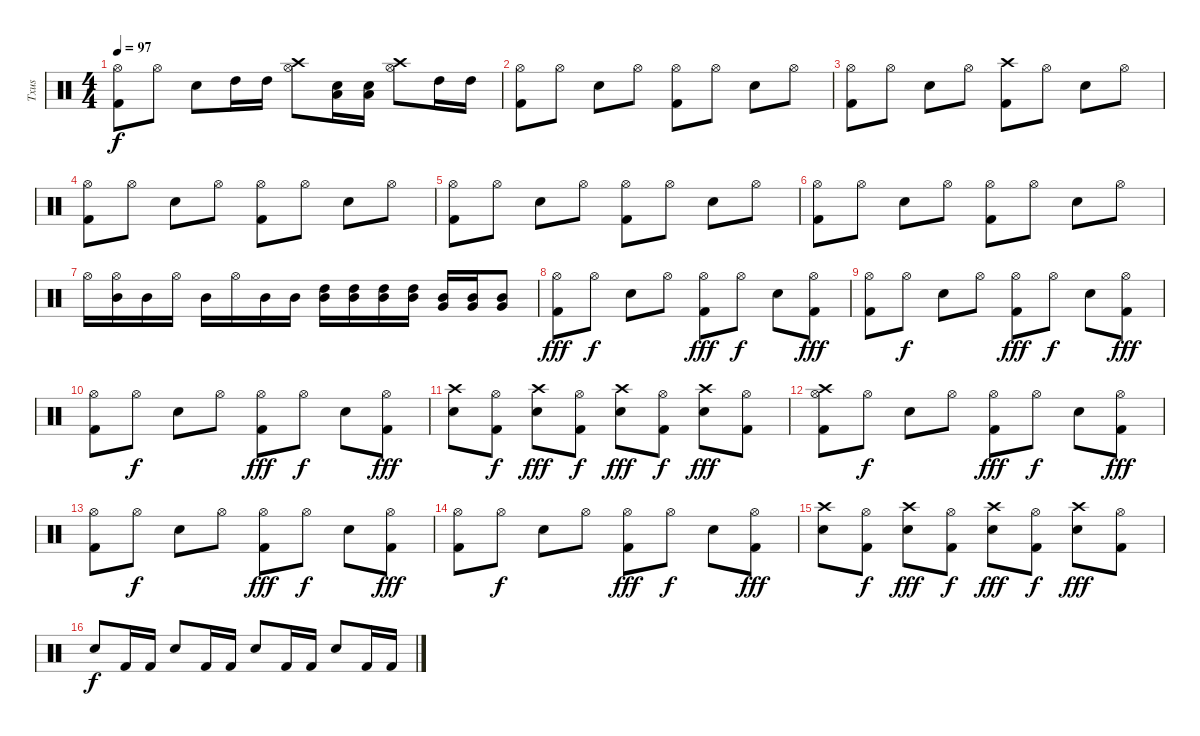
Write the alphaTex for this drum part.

\track ("Txus" "Txus") {instrument percussion}
\staff {score}
\articulation defaults
\ts (4 4)
\tempo 97
\clef neutral
\ks c
("Hi-Hat (open)" "Kick (hit) 2").8{dy f} "Hi-Hat (open)".8 "Snare (hit) 2".8 "High Tom (hit)".16 "High Tom (hit)".16 ("Crash high (hit)" "Hi-Hat (open)").8 ("Low Tom (hit)" "Snare (hit) 2").16 ("Low Tom (hit)" "Snare (hit) 2").16 ("Crash high (hit)" "Hi-Hat (open)").8 "High Tom (hit)".16 "High Tom (hit)".16 |
("Hi-Hat (open)" "Kick (hit) 2").8 "Hi-Hat (open)".8 "Snare (hit) 2".8 "Hi-Hat (open)".8 ("Hi-Hat (open)" "Kick (hit) 2").8 "Hi-Hat (open)".8 "Snare (hit) 2".8 "Hi-Hat (open)".8 |
("Hi-Hat (open)" "Kick (hit) 2").8 "Hi-Hat (open)".8 "Snare (hit) 2".8 "Hi-Hat (open)".8 ("Crash high (hit)" "Kick (hit) 2").8 "Hi-Hat (open)".8 "Snare (hit) 2".8 "Hi-Hat (open)".8 |
("Hi-Hat (open)" "Kick (hit) 2").8 "Hi-Hat (open)".8 "Snare (hit) 2".8 "Hi-Hat (open)".8 ("Hi-Hat (open)" "Kick (hit) 2").8 "Hi-Hat (open)".8 "Snare (hit) 2".8 "Hi-Hat (open)".8 |
("Hi-Hat (open)" "Kick (hit) 2").8 "Hi-Hat (open)".8 "Snare (hit) 2".8 "Hi-Hat (open)".8 ("Hi-Hat (open)" "Kick (hit) 2").8 "Hi-Hat (open)".8 "Snare (hit) 2".8 "Hi-Hat (open)".8 |
("Hi-Hat (open)" "Kick (hit) 2").8 "Hi-Hat (open)".8 "Snare (hit) 2".8 "Hi-Hat (open)".8 ("Hi-Hat (open)" "Kick (hit) 2").8 "Hi-Hat (open)".8 "Snare (hit) 2".8 "Hi-Hat (open)".8 |
"Hi-Hat (open)".16 ("Hi-Hat (open)" "Mid Tom (hit)").16 "Mid Tom (hit)".16 "Hi-Hat (open)".16 "Mid Tom (hit)".16 "Hi-Hat (open)".16 "Mid Tom (hit)".16 "Mid Tom (hit)".16 ("High Tom (hit)" "Mid Tom (hit)").16 ("High Tom (hit)" "Mid Tom (hit)").16 ("High Tom (hit)" "Mid Tom (hit)").16 ("High Tom (hit)" "Mid Tom (hit)").16 ("Very Low Tom (hit)" "Mid Tom (hit)").16 ("Very Low Tom (hit)" "Mid Tom (hit)").16 ("Very Low Tom (hit)" "Mid Tom (hit)").8 |
("Hi-Hat (open)" "Kick (hit) 2").8{dy fff} "Hi-Hat (open)".8{dy f} "Snare (hit) 2".8 "Hi-Hat (open)".8 ("Hi-Hat (open)" "Kick (hit) 2").8{dy fff} "Hi-Hat (open)".8{dy f} "Snare (hit) 2".8 ("Hi-Hat (open)" "Kick (hit) 2").8{dy fff} |
("Hi-Hat (open)" "Kick (hit) 2").8 "Hi-Hat (open)".8{dy f} "Snare (hit) 2".8 "Hi-Hat (open)".8 ("Hi-Hat (open)" "Kick (hit) 2").8{dy fff} "Hi-Hat (open)".8{dy f} "Snare (hit) 2".8 ("Hi-Hat (open)" "Kick (hit) 2").8{dy fff} |
("Hi-Hat (open)" "Kick (hit) 2").8 "Hi-Hat (open)".8{dy f} "Snare (hit) 2".8 "Hi-Hat (open)".8 ("Hi-Hat (open)" "Kick (hit) 2").8{dy fff} "Hi-Hat (open)".8{dy f} "Snare (hit) 2".8 ("Hi-Hat (open)" "Kick (hit) 2").8{dy fff} |
("Crash high (hit)" "Snare (hit) 2").8 ("Hi-Hat (open)" "Kick (hit) 2").8{dy f} ("Crash high (hit)" "Snare (hit) 2").8{dy fff} ("Hi-Hat (open)" "Kick (hit) 2").8{dy f} ("Crash high (hit)" "Snare (hit) 2").8{dy fff} ("Hi-Hat (open)" "Kick (hit) 2").8{dy f} ("Crash high (hit)" "Snare (hit) 2").8{dy fff} ("Hi-Hat (open)" "Kick (hit) 2").8 |
("Crash high (hit)" "Hi-Hat (open)" "Kick (hit) 2").8 "Hi-Hat (open)".8{dy f} "Snare (hit) 2".8 "Hi-Hat (open)".8 ("Hi-Hat (open)" "Kick (hit) 2").8{dy fff} "Hi-Hat (open)".8{dy f} "Snare (hit) 2".8 ("Hi-Hat (open)" "Kick (hit) 2").8{dy fff} |
("Hi-Hat (open)" "Kick (hit) 2").8 "Hi-Hat (open)".8{dy f} "Snare (hit) 2".8 "Hi-Hat (open)".8 ("Hi-Hat (open)" "Kick (hit) 2").8{dy fff} "Hi-Hat (open)".8{dy f} "Snare (hit) 2".8 ("Hi-Hat (open)" "Kick (hit) 2").8{dy fff} |
("Hi-Hat (open)" "Kick (hit) 2").8 "Hi-Hat (open)".8{dy f} "Snare (hit) 2".8 "Hi-Hat (open)".8 ("Hi-Hat (open)" "Kick (hit) 2").8{dy fff} "Hi-Hat (open)".8{dy f} "Snare (hit) 2".8 ("Hi-Hat (open)" "Kick (hit) 2").8{dy fff} |
("Crash high (hit)" "Snare (hit) 2").8 ("Hi-Hat (open)" "Kick (hit) 2").8{dy f} ("Crash high (hit)" "Snare (hit) 2").8{dy fff} ("Hi-Hat (open)" "Kick (hit) 2").8{dy f} ("Crash high (hit)" "Snare (hit) 2").8{dy fff} ("Hi-Hat (open)" "Kick (hit) 2").8{dy f} ("Crash high (hit)" "Snare (hit) 2").8{dy fff} ("Hi-Hat (open)" "Kick (hit) 2").8 |
"Snare (hit) 2".8{dy f} "Kick (hit) 2".16 "Kick (hit) 2".16 "Snare (hit) 2".8 "Kick (hit) 2".16 "Kick (hit) 2".16 "Snare (hit) 2".8 "Kick (hit) 2".16 "Kick (hit) 2".16 "Snare (hit) 2".8 "Kick (hit) 2".16 "Kick (hit) 2".16
